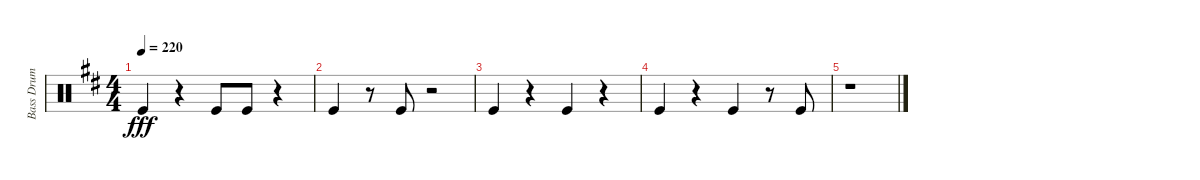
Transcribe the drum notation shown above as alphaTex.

\track ("Bass Drum" "Bass Drum") {instrument percussion}
\staff {score}
\articulation defaults
\ts (4 4)
\tempo 220
\clef neutral
\ks d "Kick (hit)".4{dy fff}
r.4 "Kick (hit)".8 "Kick (hit)".8 r.4 |
"Kick (hit)".4 r.8 "Kick (hit)".8 r.2 |
"Kick (hit)".4 r.4 "Kick (hit)".4 r.4 |
"Kick (hit)".4 r.4 "Kick (hit)".4 r.8 "Kick (hit)".8 |
r.1
